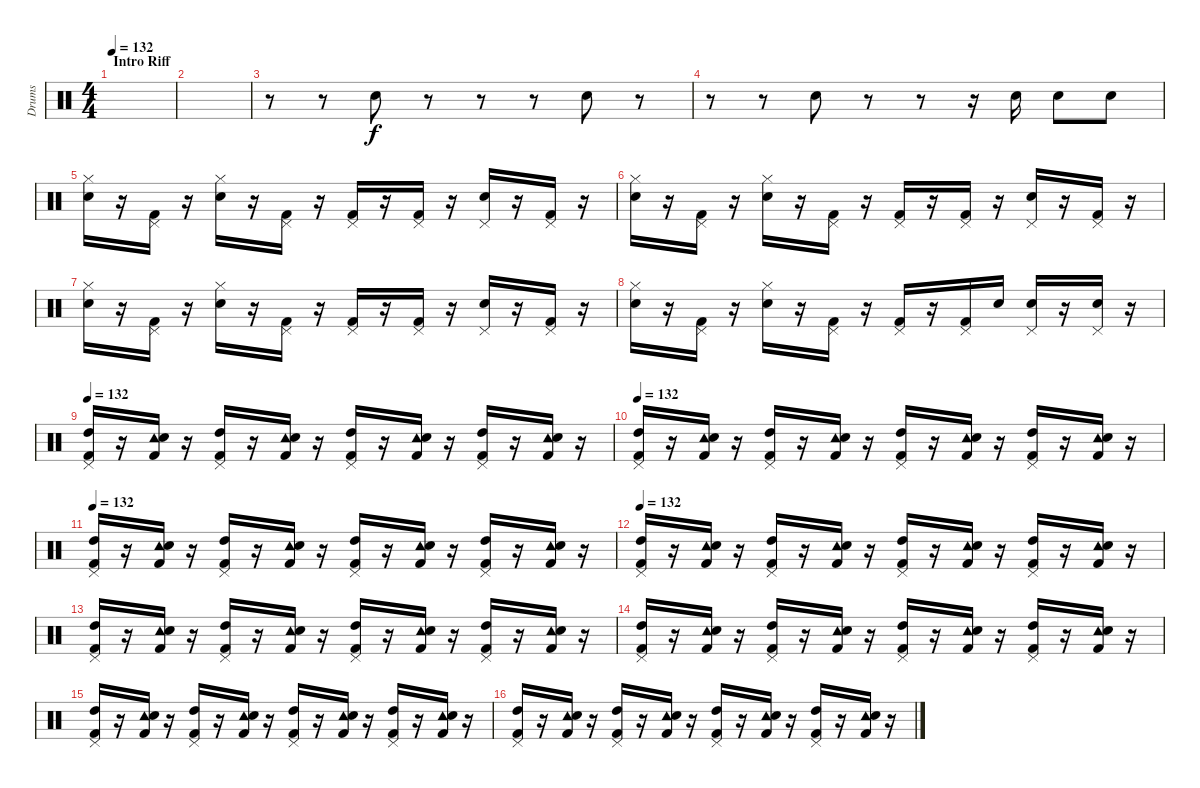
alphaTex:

\track ("Drums" "Drums") {instrument percussion}
\staff {score}
\articulation defaults
\ts (4 4)
\section ("" "Intro Riff")
\tempo 132
\tempo 125
\tempo 132
\clef neutral
\ks c
|
|
r.8 r.8 "Snare (hit) 2".8 r.8 r.8 r.8 "Snare (hit) 2".8 r.8 |
r.8 r.8 "Snare (hit) 2".8 r.8 r.8 r.16 "Snare (hit) 2".16 "Snare (hit) 2".8 "Snare (hit) 2".8 |
("Hi-Hat (closed)" "Snare (hit) 2").16 r.16 ("Pedal Hi-Hat (hit)" "Kick (hit) 2").16 r.16 ("Hi-Hat (closed)" "Snare (hit) 2").16 r.16 ("Pedal Hi-Hat (hit)" "Kick (hit) 2").16 r.16 ("Pedal Hi-Hat (hit)" "Kick (hit) 2").16 r.16 ("Pedal Hi-Hat (hit)" "Kick (hit) 2").16 r.16 ("Pedal Hi-Hat (hit)" "Snare (hit) 2").16 r.16 ("Pedal Hi-Hat (hit)" "Kick (hit) 2").16 r.16 |
("Hi-Hat (closed)" "Snare (hit) 2").16 r.16 ("Pedal Hi-Hat (hit)" "Kick (hit) 2").16 r.16 ("Hi-Hat (closed)" "Snare (hit) 2").16 r.16 ("Pedal Hi-Hat (hit)" "Kick (hit) 2").16 r.16 ("Pedal Hi-Hat (hit)" "Kick (hit) 2").16 r.16 ("Pedal Hi-Hat (hit)" "Kick (hit) 2").16 r.16 ("Pedal Hi-Hat (hit)" "Snare (hit) 2").16 r.16 ("Pedal Hi-Hat (hit)" "Kick (hit) 2").16 r.16 |
("Hi-Hat (closed)" "Snare (hit) 2").16 r.16 ("Pedal Hi-Hat (hit)" "Kick (hit) 2").16 r.16 ("Hi-Hat (closed)" "Snare (hit) 2").16 r.16 ("Pedal Hi-Hat (hit)" "Kick (hit) 2").16 r.16 ("Pedal Hi-Hat (hit)" "Kick (hit) 2").16 r.16 ("Pedal Hi-Hat (hit)" "Kick (hit) 2").16 r.16 ("Pedal Hi-Hat (hit)" "Snare (hit) 2").16 r.16 ("Pedal Hi-Hat (hit)" "Kick (hit) 2").16 r.16 |
("Hi-Hat (closed)" "Snare (hit) 2").16 r.16 ("Pedal Hi-Hat (hit)" "Kick (hit) 2").16 r.16 ("Hi-Hat (closed)" "Snare (hit) 2").16 r.16 ("Pedal Hi-Hat (hit)" "Kick (hit) 2").16 r.16 ("Pedal Hi-Hat (hit)" "Kick (hit) 2").16 r.16 ("Pedal Hi-Hat (hit)" "Kick (hit) 2").16 "Snare (hit) 2".16 ("Pedal Hi-Hat (hit)" "Snare (hit) 2").16 r.16 ("Pedal Hi-Hat (hit)" "Snare (hit) 2").16 r.16 |
\tempo 132
("Pedal Hi-Hat (hit)" "Kick (hit) 2" "High Tom (hit)").16 r.16 ("Tambourine (hit)" "Kick (hit) 2" "Snare (hit) 2").16 r.16 ("Pedal Hi-Hat (hit)" "Kick (hit) 2" "High Tom (hit)").16 r.16 ("Tambourine (hit)" "Kick (hit) 2" "Snare (hit) 2").16 r.16 ("Pedal Hi-Hat (hit)" "Kick (hit) 2" "High Tom (hit)").16 r.16 ("Tambourine (hit)" "Kick (hit) 2" "Snare (hit) 2").16 r.16 ("Pedal Hi-Hat (hit)" "Kick (hit) 2" "High Tom (hit)").16 r.16 ("Tambourine (hit)" "Kick (hit) 2" "Snare (hit) 2").16 r.16 |
\tempo 132
("Pedal Hi-Hat (hit)" "Kick (hit) 2" "High Tom (hit)").16 r.16 ("Tambourine (hit)" "Kick (hit) 2" "Snare (hit) 2").16 r.16 ("Pedal Hi-Hat (hit)" "Kick (hit) 2" "High Tom (hit)").16 r.16 ("Tambourine (hit)" "Kick (hit) 2" "Snare (hit) 2").16 r.16 ("Pedal Hi-Hat (hit)" "Kick (hit) 2" "High Tom (hit)").16 r.16 ("Tambourine (hit)" "Kick (hit) 2" "Snare (hit) 2").16 r.16 ("Pedal Hi-Hat (hit)" "Kick (hit) 2" "High Tom (hit)").16 r.16 ("Tambourine (hit)" "Kick (hit) 2" "Snare (hit) 2").16 r.16 |
\tempo 132
("Pedal Hi-Hat (hit)" "Kick (hit) 2" "High Tom (hit)").16 r.16 ("Tambourine (hit)" "Kick (hit) 2" "Snare (hit) 2").16 r.16 ("Pedal Hi-Hat (hit)" "Kick (hit) 2" "High Tom (hit)").16 r.16 ("Tambourine (hit)" "Kick (hit) 2" "Snare (hit) 2").16 r.16 ("Pedal Hi-Hat (hit)" "Kick (hit) 2" "High Tom (hit)").16 r.16 ("Tambourine (hit)" "Kick (hit) 2" "Snare (hit) 2").16 r.16 ("Pedal Hi-Hat (hit)" "Kick (hit) 2" "High Tom (hit)").16 r.16 ("Tambourine (hit)" "Kick (hit) 2" "Snare (hit) 2").16 r.16 |
\tempo 132
("Pedal Hi-Hat (hit)" "Kick (hit) 2" "High Tom (hit)").16 r.16 ("Tambourine (hit)" "Kick (hit) 2" "Snare (hit) 2").16 r.16 ("Pedal Hi-Hat (hit)" "Kick (hit) 2" "High Tom (hit)").16 r.16 ("Tambourine (hit)" "Kick (hit) 2" "Snare (hit) 2").16 r.16 ("Pedal Hi-Hat (hit)" "Kick (hit) 2" "High Tom (hit)").16 r.16 ("Tambourine (hit)" "Kick (hit) 2" "Snare (hit) 2").16 r.16 ("Pedal Hi-Hat (hit)" "Kick (hit) 2" "High Tom (hit)").16 r.16 ("Tambourine (hit)" "Kick (hit) 2" "Snare (hit) 2").16 r.16 |
("Pedal Hi-Hat (hit)" "Kick (hit) 2" "High Tom (hit)").16 r.16 ("Tambourine (hit)" "Kick (hit) 2" "Snare (hit) 2").16 r.16 ("Pedal Hi-Hat (hit)" "Kick (hit) 2" "High Tom (hit)").16 r.16 ("Tambourine (hit)" "Kick (hit) 2" "Snare (hit) 2").16 r.16 ("Pedal Hi-Hat (hit)" "Kick (hit) 2" "High Tom (hit)").16 r.16 ("Tambourine (hit)" "Kick (hit) 2" "Snare (hit) 2").16 r.16 ("Pedal Hi-Hat (hit)" "Kick (hit) 2" "High Tom (hit)").16 r.16 ("Tambourine (hit)" "Kick (hit) 2" "Snare (hit) 2").16 r.16 |
("Pedal Hi-Hat (hit)" "Kick (hit) 2" "High Tom (hit)").16 r.16 ("Tambourine (hit)" "Kick (hit) 2" "Snare (hit) 2").16 r.16 ("Pedal Hi-Hat (hit)" "Kick (hit) 2" "High Tom (hit)").16 r.16 ("Tambourine (hit)" "Kick (hit) 2" "Snare (hit) 2").16 r.16 ("Pedal Hi-Hat (hit)" "Kick (hit) 2" "High Tom (hit)").16 r.16 ("Tambourine (hit)" "Kick (hit) 2" "Snare (hit) 2").16 r.16 ("Pedal Hi-Hat (hit)" "Kick (hit) 2" "High Tom (hit)").16 r.16 ("Tambourine (hit)" "Kick (hit) 2" "Snare (hit) 2").16 r.16 |
("Pedal Hi-Hat (hit)" "Kick (hit) 2" "High Tom (hit)").16 r.16 ("Tambourine (hit)" "Kick (hit) 2" "Snare (hit) 2").16 r.16 ("Pedal Hi-Hat (hit)" "Kick (hit) 2" "High Tom (hit)").16 r.16 ("Tambourine (hit)" "Kick (hit) 2" "Snare (hit) 2").16 r.16 ("Pedal Hi-Hat (hit)" "Kick (hit) 2" "High Tom (hit)").16 r.16 ("Tambourine (hit)" "Kick (hit) 2" "Snare (hit) 2").16 r.16 ("Pedal Hi-Hat (hit)" "Kick (hit) 2" "High Tom (hit)").16 r.16 ("Tambourine (hit)" "Kick (hit) 2" "Snare (hit) 2").16 r.16 |
("Pedal Hi-Hat (hit)" "Kick (hit) 2" "High Tom (hit)").16 r.16 ("Tambourine (hit)" "Kick (hit) 2" "Snare (hit) 2").16 r.16 ("Pedal Hi-Hat (hit)" "Kick (hit) 2" "High Tom (hit)").16 r.16 ("Tambourine (hit)" "Kick (hit) 2" "Snare (hit) 2").16 r.16 ("Pedal Hi-Hat (hit)" "Kick (hit) 2" "High Tom (hit)").16 r.16 ("Tambourine (hit)" "Kick (hit) 2" "Snare (hit) 2").16 r.16 ("Pedal Hi-Hat (hit)" "Kick (hit) 2" "High Tom (hit)").16 r.16 ("Tambourine (hit)" "Kick (hit) 2" "Snare (hit) 2").16 r.16
